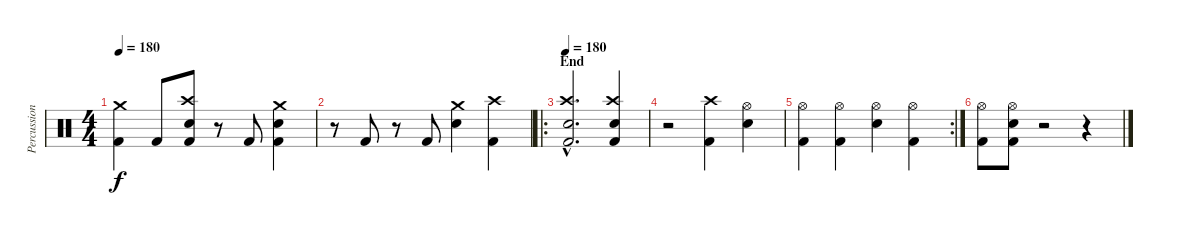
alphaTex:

\track ("Percussion" "Percussion") {instrument percussion}
\staff {score}
\articulation defaults
\ts (4 4)
\tempo 180
\clef neutral
\ks c
("Crash medium (hit)" "Kick (hit) 2").4{dy f} "Kick (hit) 2".8 ("Crash high (hit)" "Snare (hit) 2" "Kick (hit) 2").8 r.8 "Kick (hit) 2".8 ("Crash medium (hit)" "Snare (hit) 2" "Kick (hit) 2").4 |
r.8 "Kick (hit) 2".8 r.8 "Kick (hit) 2".8 ("Crash medium (hit)" "Snare (hit) 2").4 ("Crash high (hit)" "Kick (hit) 2").4 |
\ro
\section ("" "End")
\tempo 180
("Crash high (hit)"{hac} "Snare (hit) 2"{hac} "Kick (hit) 2"{hac}).2{d} ("Crash high (hit)" "Snare (hit) 2" "Kick (hit) 2").4 |
r.2 ("Crash high (hit)" "Kick (hit) 2").4 ("Hi-Hat (open)" "Snare (hit) 2").4 |
\rc 2
("Hi-Hat (open)" "Kick (hit) 2").4 ("Hi-Hat (open)" "Kick (hit) 2").4 ("Hi-Hat (open)" "Snare (hit) 2").4 ("Hi-Hat (open)" "Kick (hit) 2").4 |
("Hi-Hat (open)" "Kick (hit) 2").8 ("Hi-Hat (open)" "Snare (hit) 2" "Kick (hit) 2").8 r.2 r.4
